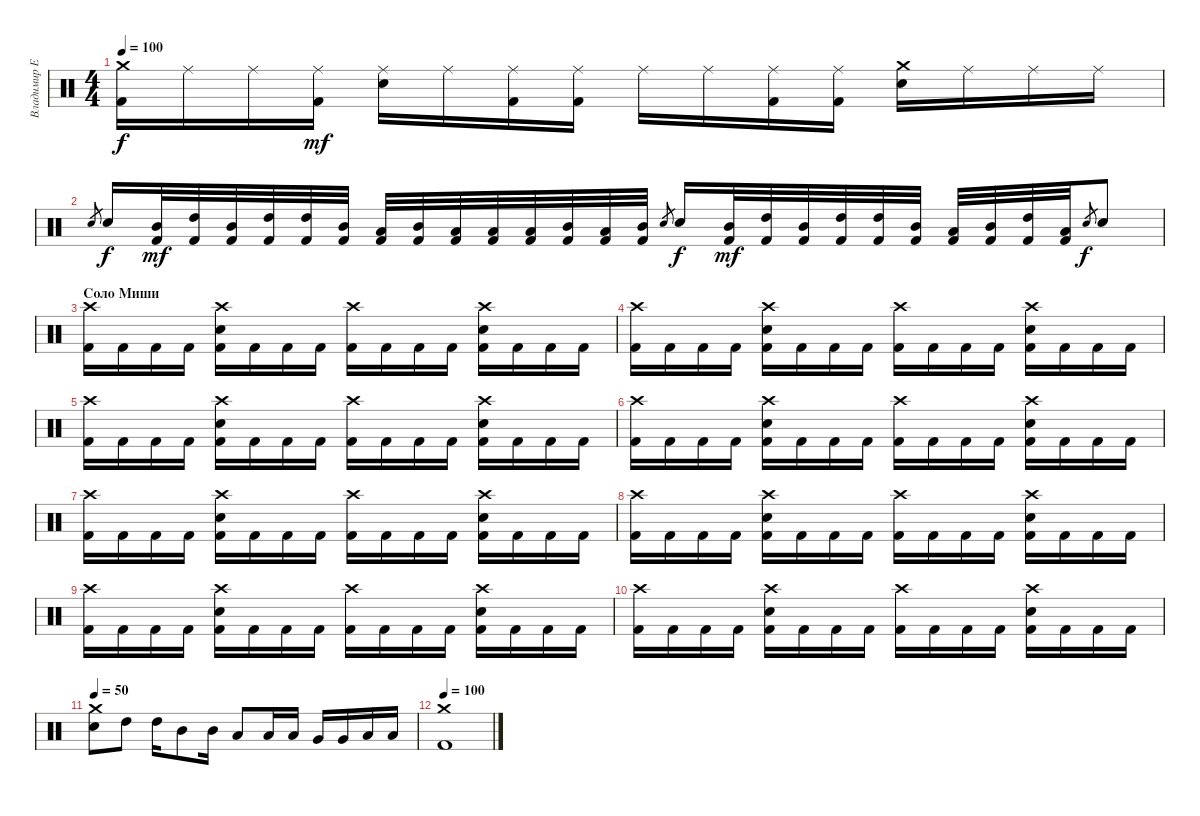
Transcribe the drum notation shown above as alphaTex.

\track ("Владимир Ермаков" "Владимир Е") {instrument percussion}
\staff {score}
\articulation defaults
\ts (4 4)
\tempo 100
\clef neutral
\ks c
("Crash medium (hit)" "Kick (hit) 2").16{dy f} "Ride (middle)".16 "Ride (middle)".16 ("Ride (middle)" "Kick (hit) 2").16{dy mf} ("Ride (middle)" "Electric Snare (hit)").16 "Ride (middle)".16 ("Ride (middle)" "Kick (hit) 2").16 ("Ride (middle)" "Kick (hit) 2").16 "Ride (middle)".16 "Ride (middle)".16 ("Ride (middle)" "Kick (hit) 2").16 ("Ride (middle)" "Kick (hit) 2").16 ("Crash medium (hit)" "Electric Snare (hit)").16 "Ride (middle)".16 "Ride (middle)".16 "Ride (middle)".16 |
"Electric Snare (hit)".8{gr} "Electric Snare (hit)".16{dy f} ("Kick (hit) 2" "Mid Tom (hit)").32{dy mf} ("Kick (hit) 2" "High Tom (hit)").32 ("Kick (hit) 2" "Mid Tom (hit)").32 ("Kick (hit) 2" "High Tom (hit)").32 ("Kick (hit) 2" "High Tom (hit)").32 ("Kick (hit) 2" "Mid Tom (hit)").32 ("Kick (hit) 2" "Low Tom (hit)").32 ("Kick (hit) 2" "Mid Tom (hit)").32 ("Kick (hit) 2" "Low Tom (hit)").32 ("Kick (hit) 2" "Low Tom (hit)").32 ("Kick (hit) 2" "Low Tom (hit)").32 ("Kick (hit) 2" "Mid Tom (hit)").32 ("Kick (hit) 2" "Low Tom (hit)").32 ("Kick (hit) 2" "Mid Tom (hit)").32 "Electric Snare (hit)".8{gr} "Electric Snare (hit)".16{dy f} ("Kick (hit) 2" "Mid Tom (hit)").32{dy mf} ("Kick (hit) 2" "High Tom (hit)").32 ("Kick (hit) 2" "Mid Tom (hit)").32 ("Kick (hit) 2" "High Tom (hit)").32 ("Kick (hit) 2" "High Tom (hit)").32 ("Kick (hit) 2" "Mid Tom (hit)").32 ("Kick (hit) 2" "Low Tom (hit)").32 ("Kick (hit) 2" "Mid Tom (hit)").32 ("Kick (hit) 2" "High Tom (hit)").32 ("Kick (hit) 2" "Low Tom (hit)").32 "Electric Snare (hit)".8{gr dy f} "Electric Snare (hit)".8 |
\section ("" "Соло Миши")
("Kick (hit) 2" "Crash high (hit)").16 "Kick (hit) 2".16 "Kick (hit) 2".16 "Kick (hit) 2".16 ("Kick (hit) 2" "Crash high (hit)" "Electric Snare (hit)").16 "Kick (hit) 2".16 "Kick (hit) 2".16 "Kick (hit) 2".16 ("Kick (hit) 2" "Crash high (hit)").16 "Kick (hit) 2".16 "Kick (hit) 2".16 "Kick (hit) 2".16 ("Kick (hit) 2" "Crash high (hit)" "Electric Snare (hit)").16 "Kick (hit) 2".16 "Kick (hit) 2".16 "Kick (hit) 2".16 |
("Kick (hit) 2" "Crash high (hit)").16 "Kick (hit) 2".16 "Kick (hit) 2".16 "Kick (hit) 2".16 ("Kick (hit) 2" "Crash high (hit)" "Electric Snare (hit)").16 "Kick (hit) 2".16 "Kick (hit) 2".16 "Kick (hit) 2".16 ("Kick (hit) 2" "Crash high (hit)").16 "Kick (hit) 2".16 "Kick (hit) 2".16 "Kick (hit) 2".16 ("Kick (hit) 2" "Crash high (hit)" "Electric Snare (hit)").16 "Kick (hit) 2".16 "Kick (hit) 2".16 "Kick (hit) 2".16 |
("Kick (hit) 2" "Crash high (hit)").16 "Kick (hit) 2".16 "Kick (hit) 2".16 "Kick (hit) 2".16 ("Kick (hit) 2" "Crash high (hit)" "Electric Snare (hit)").16 "Kick (hit) 2".16 "Kick (hit) 2".16 "Kick (hit) 2".16 ("Kick (hit) 2" "Crash high (hit)").16 "Kick (hit) 2".16 "Kick (hit) 2".16 "Kick (hit) 2".16 ("Kick (hit) 2" "Crash high (hit)" "Electric Snare (hit)").16 "Kick (hit) 2".16 "Kick (hit) 2".16 "Kick (hit) 2".16 |
("Kick (hit) 2" "Crash high (hit)").16 "Kick (hit) 2".16 "Kick (hit) 2".16 "Kick (hit) 2".16 ("Kick (hit) 2" "Crash high (hit)" "Electric Snare (hit)").16 "Kick (hit) 2".16 "Kick (hit) 2".16 "Kick (hit) 2".16 ("Kick (hit) 2" "Crash high (hit)").16 "Kick (hit) 2".16 "Kick (hit) 2".16 "Kick (hit) 2".16 ("Kick (hit) 2" "Crash high (hit)" "Electric Snare (hit)").16 "Kick (hit) 2".16 "Kick (hit) 2".16 "Kick (hit) 2".16 |
("Kick (hit) 2" "Crash high (hit)").16 "Kick (hit) 2".16 "Kick (hit) 2".16 "Kick (hit) 2".16 ("Kick (hit) 2" "Crash high (hit)" "Electric Snare (hit)").16 "Kick (hit) 2".16 "Kick (hit) 2".16 "Kick (hit) 2".16 ("Kick (hit) 2" "Crash high (hit)").16 "Kick (hit) 2".16 "Kick (hit) 2".16 "Kick (hit) 2".16 ("Kick (hit) 2" "Crash high (hit)" "Electric Snare (hit)").16 "Kick (hit) 2".16 "Kick (hit) 2".16 "Kick (hit) 2".16 |
("Kick (hit) 2" "Crash high (hit)").16 "Kick (hit) 2".16 "Kick (hit) 2".16 "Kick (hit) 2".16 ("Kick (hit) 2" "Crash high (hit)" "Electric Snare (hit)").16 "Kick (hit) 2".16 "Kick (hit) 2".16 "Kick (hit) 2".16 ("Kick (hit) 2" "Crash high (hit)").16 "Kick (hit) 2".16 "Kick (hit) 2".16 "Kick (hit) 2".16 ("Kick (hit) 2" "Crash high (hit)" "Electric Snare (hit)").16 "Kick (hit) 2".16 "Kick (hit) 2".16 "Kick (hit) 2".16 |
("Kick (hit) 2" "Crash high (hit)").16 "Kick (hit) 2".16 "Kick (hit) 2".16 "Kick (hit) 2".16 ("Kick (hit) 2" "Crash high (hit)" "Electric Snare (hit)").16 "Kick (hit) 2".16 "Kick (hit) 2".16 "Kick (hit) 2".16 ("Kick (hit) 2" "Crash high (hit)").16 "Kick (hit) 2".16 "Kick (hit) 2".16 "Kick (hit) 2".16 ("Kick (hit) 2" "Crash high (hit)" "Electric Snare (hit)").16 "Kick (hit) 2".16 "Kick (hit) 2".16 "Kick (hit) 2".16 |
("Kick (hit) 2" "Crash high (hit)").16 "Kick (hit) 2".16 "Kick (hit) 2".16 "Kick (hit) 2".16 ("Kick (hit) 2" "Crash high (hit)" "Electric Snare (hit)").16 "Kick (hit) 2".16 "Kick (hit) 2".16 "Kick (hit) 2".16 ("Kick (hit) 2" "Crash high (hit)").16 "Kick (hit) 2".16 "Kick (hit) 2".16 "Kick (hit) 2".16 ("Kick (hit) 2" "Crash high (hit)" "Electric Snare (hit)").16 "Kick (hit) 2".16 "Kick (hit) 2".16 "Kick (hit) 2".16 |
\tempo 50
("Crash medium (hit)" "Electric Snare (hit)").8 "High Tom (hit)".8 "High Tom (hit)".16 "Mid Tom (hit)".8 "Mid Tom (hit)".16 "Low Tom (hit)".8 "Low Tom (hit)".16 "Low Tom (hit)".16 "Very Low Tom (hit)".16 "Very Low Tom (hit)".16 "Low Floor Tom (hit)".16 "Low Floor Tom (hit)".16 |
\tempo 100
("Crash medium (hit)" "Kick (hit) 2").1
